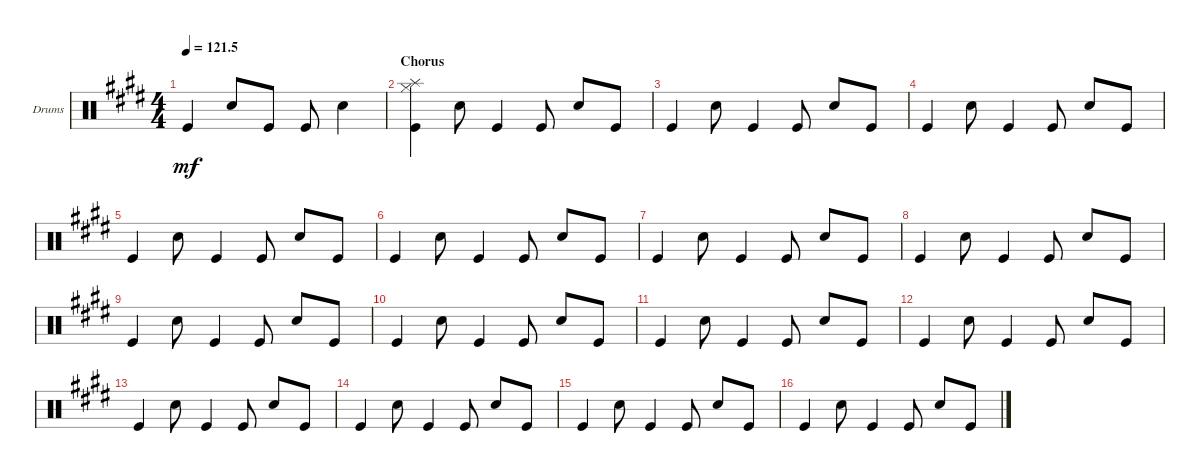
\defaultSystemsLayout 4
\bracketExtendMode groupsimilarinstruments
\firstSystemTrackNameOrientation horizontal
\otherSystemsTrackNameOrientation horizontal
\track ("Drumkit" "Drums") {solo instrument percussion}
\staff {score}
\articulation defaults
\ts (4 4)
\tempo
121.5
\accidentals auto
\clef neutral
\ottava regular
\simile none
\ks e "Kick (hit)".4{dy mf} "Snare (hit) 2".8 "Kick (hit)".8 "Kick (hit)".8 "Snare (hit) 2".4
|
\section ("" "Chorus")
("Kick (hit)" "Hi-Hat (closed)" "Splash (hit)").4 "Snare (hit) 2".8 "Kick (hit)".4 "Kick (hit)".8 "Snare (hit) 2".8 "Kick (hit)".8 |
"Kick (hit)".4 "Snare (hit) 2".8 "Kick (hit)".4 "Kick (hit)".8 "Snare (hit) 2".8 "Kick (hit)".8 |
"Kick (hit)".4 "Snare (hit) 2".8 "Kick (hit)".4 "Kick (hit)".8 "Snare (hit) 2".8 "Kick (hit)".8 |
"Kick (hit)".4 "Snare (hit) 2".8 "Kick (hit)".4 "Kick (hit)".8 "Snare (hit) 2".8 "Kick (hit)".8 |
"Kick (hit)".4 "Snare (hit) 2".8 "Kick (hit)".4 "Kick (hit)".8 "Snare (hit) 2".8 "Kick (hit)".8 |
"Kick (hit)".4 "Snare (hit) 2".8 "Kick (hit)".4 "Kick (hit)".8 "Snare (hit) 2".8 "Kick (hit)".8 |
"Kick (hit)".4 "Snare (hit) 2".8 "Kick (hit)".4 "Kick (hit)".8 "Snare (hit) 2".8 "Kick (hit)".8 |
"Kick (hit)".4 "Snare (hit) 2".8 "Kick (hit)".4 "Kick (hit)".8 "Snare (hit) 2".8 "Kick (hit)".8 |
"Kick (hit)".4 "Snare (hit) 2".8 "Kick (hit)".4 "Kick (hit)".8 "Snare (hit) 2".8 "Kick (hit)".8 |
"Kick (hit)".4 "Snare (hit) 2".8 "Kick (hit)".4 "Kick (hit)".8 "Snare (hit) 2".8 "Kick (hit)".8 |
"Kick (hit)".4 "Snare (hit) 2".8 "Kick (hit)".4 "Kick (hit)".8 "Snare (hit) 2".8 "Kick (hit)".8 |
"Kick (hit)".4 "Snare (hit) 2".8 "Kick (hit)".4 "Kick (hit)".8 "Snare (hit) 2".8 "Kick (hit)".8 |
"Kick (hit)".4 "Snare (hit) 2".8 "Kick (hit)".4 "Kick (hit)".8 "Snare (hit) 2".8 "Kick (hit)".8 |
"Kick (hit)".4 "Snare (hit) 2".8 "Kick (hit)".4 "Kick (hit)".8 "Snare (hit) 2".8 "Kick (hit)".8 |
"Kick (hit)".4 "Snare (hit) 2".8 "Kick (hit)".4 "Kick (hit)".8 "Snare (hit) 2".8 "Kick (hit)".8
